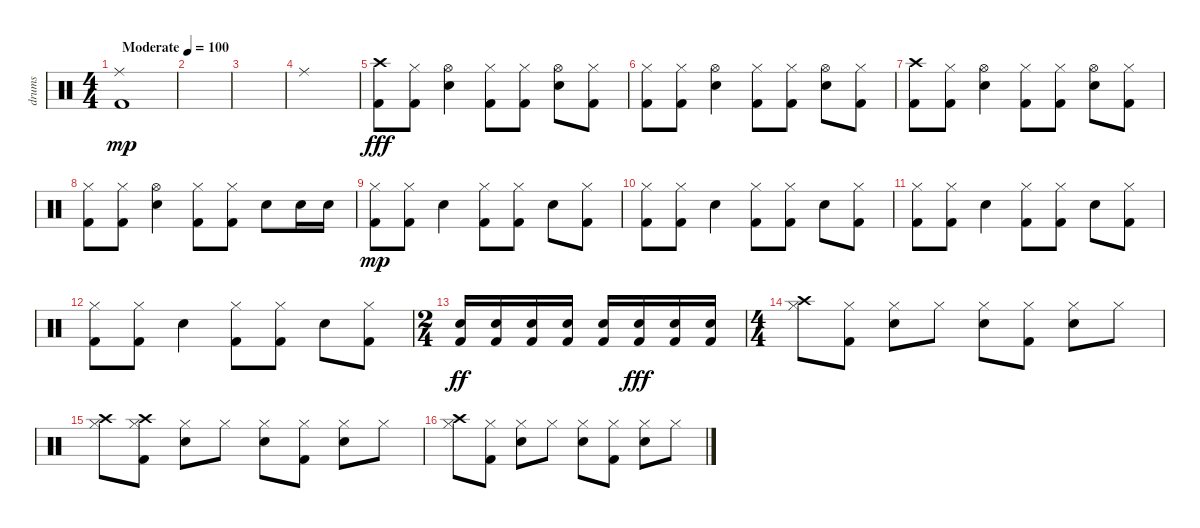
\track ("drums" "drums") {instrument percussion}
\staff {score}
\articulation defaults
\ts (4 4)
\tempo (100 "Moderate")
\clef neutral
\ks c
("Ride (middle)" "Kick (hit) 2").1{dy mp} |
|
|
"Ride (middle)".1 |
("Crash high (hit)" "Kick (hit) 2").8{dy fff} ("Hi-Hat (closed)" "Kick (hit) 2").8 ("Hi-Hat (open)" "Electric Snare (hit)").4 ("Hi-Hat (closed)" "Kick (hit) 2").8 ("Hi-Hat (closed)" "Kick (hit) 2").8 ("Hi-Hat (open)" "Electric Snare (hit)").8 ("Hi-Hat (closed)" "Kick (hit) 2").8 |
("Hi-Hat (closed)" "Kick (hit) 2").8 ("Hi-Hat (closed)" "Kick (hit) 2").8 ("Hi-Hat (open)" "Electric Snare (hit)").4 ("Hi-Hat (closed)" "Kick (hit) 2").8 ("Hi-Hat (closed)" "Kick (hit) 2").8 ("Hi-Hat (open)" "Electric Snare (hit)").8 ("Hi-Hat (closed)" "Kick (hit) 2").8 |
("Crash high (hit)" "Kick (hit) 2").8 ("Hi-Hat (closed)" "Kick (hit) 2").8 ("Hi-Hat (open)" "Electric Snare (hit)").4 ("Hi-Hat (closed)" "Kick (hit) 2").8 ("Hi-Hat (closed)" "Kick (hit) 2").8 ("Hi-Hat (open)" "Electric Snare (hit)").8 ("Hi-Hat (closed)" "Kick (hit) 2").8 |
("Hi-Hat (closed)" "Kick (hit) 2").8 ("Hi-Hat (closed)" "Kick (hit) 2").8 ("Hi-Hat (open)" "Electric Snare (hit)").4 ("Hi-Hat (closed)" "Kick (hit) 2").8 ("Hi-Hat (closed)" "Kick (hit) 2").8 "Electric Snare (hit)".8 "Electric Snare (hit)".16 "Electric Snare (hit)".16 |
("Hi-Hat (closed)" "Kick (hit) 2").8{dy mp} ("Hi-Hat (closed)" "Kick (hit) 2").8 "Electric Snare (hit)".4 ("Hi-Hat (closed)" "Kick (hit) 2").8 ("Hi-Hat (closed)" "Kick (hit) 2").8 "Electric Snare (hit)".8 ("Hi-Hat (closed)" "Kick (hit) 2").8 |
("Hi-Hat (closed)" "Kick (hit) 2").8 ("Hi-Hat (closed)" "Kick (hit) 2").8 "Electric Snare (hit)".4 ("Hi-Hat (closed)" "Kick (hit) 2").8 ("Hi-Hat (closed)" "Kick (hit) 2").8 "Electric Snare (hit)".8 ("Hi-Hat (closed)" "Kick (hit) 2").8 |
("Hi-Hat (closed)" "Kick (hit) 2").8 ("Hi-Hat (closed)" "Kick (hit) 2").8 "Electric Snare (hit)".4 ("Hi-Hat (closed)" "Kick (hit) 2").8 ("Hi-Hat (closed)" "Kick (hit) 2").8 "Electric Snare (hit)".8 ("Hi-Hat (closed)" "Kick (hit) 2").8 |
("Hi-Hat (closed)" "Kick (hit) 2").8 ("Hi-Hat (closed)" "Kick (hit) 2").8 "Electric Snare (hit)".4 ("Hi-Hat (closed)" "Kick (hit) 2").8 ("Hi-Hat (closed)" "Kick (hit) 2").8 "Electric Snare (hit)".8 ("Hi-Hat (closed)" "Kick (hit) 2").8 |
\ts (2 4)
("Electric Snare (hit)" "Kick (hit) 2").16{dy ff} ("Electric Snare (hit)" "Kick (hit) 2").16 ("Electric Snare (hit)" "Kick (hit) 2").16 ("Electric Snare (hit)" "Kick (hit) 2").16 ("Electric Snare (hit)" "Kick (hit) 2").16 ("Electric Snare (hit)" "Kick (hit) 2").16{dy fff} ("Electric Snare (hit)" "Kick (hit) 2").16 ("Electric Snare (hit)" "Kick (hit) 2").16 |
\ts (4 4)
("Crash high (hit)" "Hi-Hat (closed)").8 ("Hi-Hat (closed)" "Kick (hit) 2").8 ("Hi-Hat (closed)" "Electric Snare (hit)").8 "Hi-Hat (closed)".8 ("Hi-Hat (closed)" "Electric Snare (hit)").8 ("Hi-Hat (closed)" "Kick (hit) 2").8 ("Hi-Hat (closed)" "Electric Snare (hit)").8 "Hi-Hat (closed)".8 |
("Crash high (hit)" "Hi-Hat (closed)").8 ("Crash high (hit)" "Hi-Hat (closed)" "Kick (hit) 2").8 ("Hi-Hat (closed)" "Electric Snare (hit)").8 "Hi-Hat (closed)".8 ("Hi-Hat (closed)" "Electric Snare (hit)").8 ("Hi-Hat (closed)" "Kick (hit) 2").8 ("Hi-Hat (closed)" "Electric Snare (hit)").8 "Hi-Hat (closed)".8 |
("Crash high (hit)" "Hi-Hat (closed)").8 ("Hi-Hat (closed)" "Kick (hit) 2").8 ("Hi-Hat (closed)" "Electric Snare (hit)").8 "Hi-Hat (closed)".8 ("Hi-Hat (closed)" "Electric Snare (hit)").8 ("Hi-Hat (closed)" "Kick (hit) 2").8 ("Hi-Hat (closed)" "Electric Snare (hit)").8 "Hi-Hat (closed)".8
